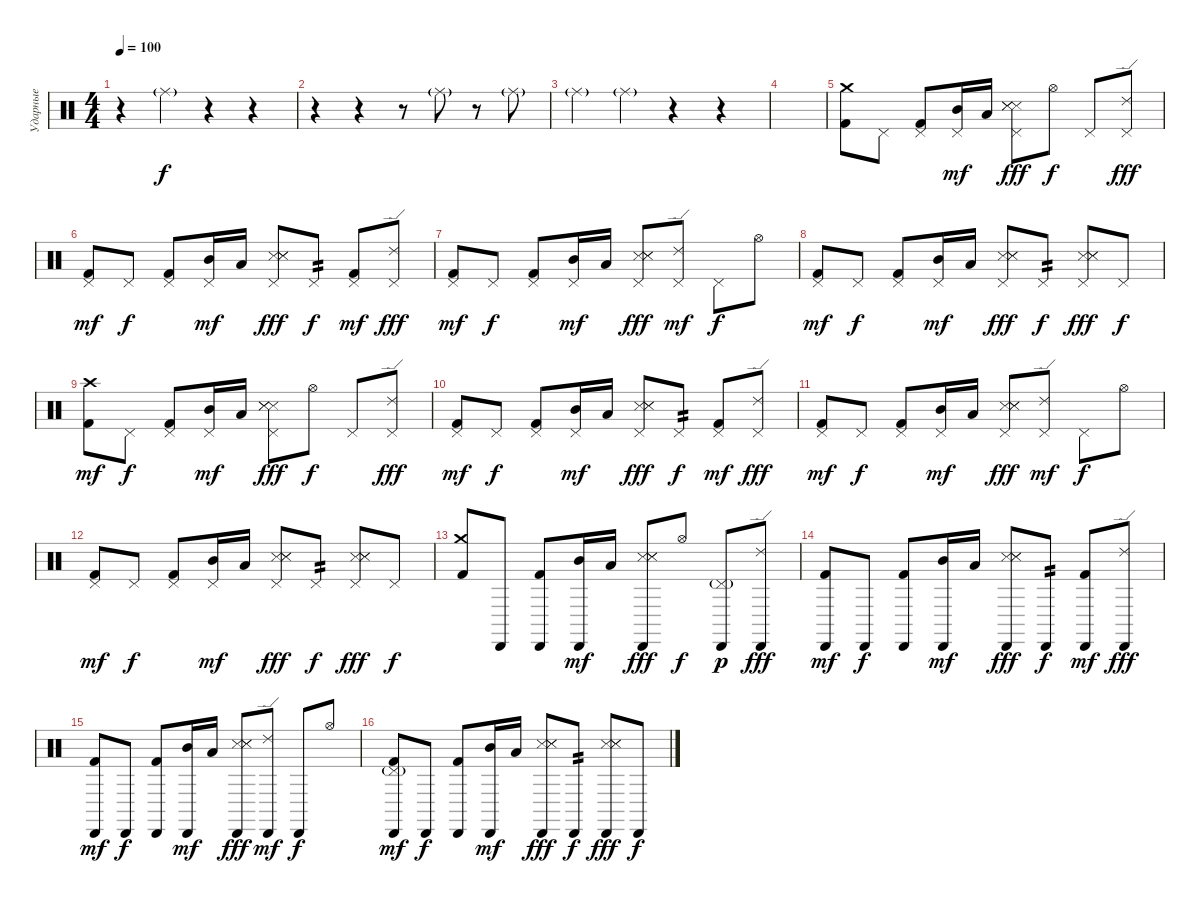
\track ("Ударные" "Ударные") {instrument percussion}
\staff {score}
\articulation defaults
\ts (4 4)
\tempo 100
\clef neutral
\ks c
r.4{dy fff} "Ride (middle)"{g}.4{dy f} r.4 r.4 |
r.4 r.4 r.8 "Ride (middle)"{g}.8 r.8 "Ride (middle)"{g}.8 |
"Ride (middle)"{g}.4 "Ride (middle)"{g}.4 r.4 r.4 |
|
("Crash medium (hit)" "Kick (hit) 2").8 "Pedal Hi-Hat (hit)".8 ("Pedal Hi-Hat (hit)" "Kick (hit) 2").8 ("Pedal Hi-Hat (hit)" "Mid Tom (hit)").16{dy mf} "Low Tom (hit)".16 ("Metronome (hit)" "Pedal Hi-Hat (hit)" "Metronome (hit)" "Metronome (hit)").8{dy fff} "Hi-Hat (open)".8{dy f} "Pedal Hi-Hat (hit)".8 ("Ride (edge) 2" "Pedal Hi-Hat (hit)").8{dy fff} |
("Pedal Hi-Hat (hit)" "Kick (hit) 2").8{dy mf} "Pedal Hi-Hat (hit)".8{dy f} ("Pedal Hi-Hat (hit)" "Kick (hit) 2").8 ("Pedal Hi-Hat (hit)" "Mid Tom (hit)").16{dy mf} "Low Tom (hit)".16 ("Metronome (hit)" "Pedal Hi-Hat (hit)" "Metronome (hit)" "Metronome (hit)").8{dy fff} "Pedal Hi-Hat (hit)".8{tp 2 dy f} ("Pedal Hi-Hat (hit)" "Kick (hit) 2").8{dy mf} ("Ride (edge) 2" "Pedal Hi-Hat (hit)").8{dy fff} |
("Pedal Hi-Hat (hit)" "Kick (hit) 2").8{dy mf} "Pedal Hi-Hat (hit)".8{dy f} ("Pedal Hi-Hat (hit)" "Kick (hit) 2").8 ("Pedal Hi-Hat (hit)" "Mid Tom (hit)").16{dy mf} "Low Tom (hit)".16 ("Metronome (hit)" "Pedal Hi-Hat (hit)" "Metronome (hit)" "Metronome (hit)").8{dy fff} ("Ride (edge) 2" "Pedal Hi-Hat (hit)").8{dy mf} "Pedal Hi-Hat (hit)".8{dy f} "Hi-Hat (open)".8 |
("Pedal Hi-Hat (hit)" "Kick (hit) 2").8{dy mf} "Pedal Hi-Hat (hit)".8{dy f} ("Pedal Hi-Hat (hit)" "Kick (hit) 2").8 ("Pedal Hi-Hat (hit)" "Mid Tom (hit)").16{dy mf} "Low Tom (hit)".16 ("Metronome (hit)" "Pedal Hi-Hat (hit)" "Metronome (hit)" "Metronome (hit)").8{dy fff} "Pedal Hi-Hat (hit)".8{tp 2 dy f} ("Metronome (hit)" "Pedal Hi-Hat (hit)" "Metronome (hit)" "Metronome (hit)").8{dy fff} "Pedal Hi-Hat (hit)".8{dy f} |
("Crash high (hit)" "Kick (hit) 2").8{dy mf} "Pedal Hi-Hat (hit)".8{dy f} ("Pedal Hi-Hat (hit)" "Kick (hit) 2").8 ("Pedal Hi-Hat (hit)" "Mid Tom (hit)").16{dy mf} "Low Tom (hit)".16 ("Metronome (hit)" "Pedal Hi-Hat (hit)" "Metronome (hit)" "Metronome (hit)").8{dy fff} "Hi-Hat (open)".8{dy f} "Pedal Hi-Hat (hit)".8 ("Ride (edge) 2" "Pedal Hi-Hat (hit)").8{dy fff} |
("Pedal Hi-Hat (hit)" "Kick (hit) 2").8{dy mf} "Pedal Hi-Hat (hit)".8{dy f} ("Pedal Hi-Hat (hit)" "Kick (hit) 2").8 ("Pedal Hi-Hat (hit)" "Mid Tom (hit)").16{dy mf} "Low Tom (hit)".16 ("Metronome (hit)" "Pedal Hi-Hat (hit)" "Metronome (hit)" "Metronome (hit)").8{dy fff} "Pedal Hi-Hat (hit)".8{tp 2 dy f} ("Pedal Hi-Hat (hit)" "Kick (hit) 2").8{dy mf} ("Ride (edge) 2" "Pedal Hi-Hat (hit)").8{dy fff} |
("Pedal Hi-Hat (hit)" "Kick (hit) 2").8{dy mf} "Pedal Hi-Hat (hit)".8{dy f} ("Pedal Hi-Hat (hit)" "Kick (hit) 2").8 ("Pedal Hi-Hat (hit)" "Mid Tom (hit)").16{dy mf} "Low Tom (hit)".16 ("Metronome (hit)" "Pedal Hi-Hat (hit)" "Metronome (hit)" "Metronome (hit)").8{dy fff} ("Ride (edge) 2" "Pedal Hi-Hat (hit)").8{dy mf} "Pedal Hi-Hat (hit)".8{dy f} "Hi-Hat (open)".8 |
("Pedal Hi-Hat (hit)" "Kick (hit) 2").8{dy mf} "Pedal Hi-Hat (hit)".8{dy f} ("Pedal Hi-Hat (hit)" "Kick (hit) 2").8 ("Pedal Hi-Hat (hit)" "Mid Tom (hit)").16{dy mf} "Low Tom (hit)".16 ("Metronome (hit)" "Pedal Hi-Hat (hit)" "Metronome (hit)" "Metronome (hit)").8{dy fff} "Pedal Hi-Hat (hit)".8{tp 2 dy f} ("Metronome (hit)" "Pedal Hi-Hat (hit)" "Metronome (hit)" "Metronome (hit)").8{dy fff} "Pedal Hi-Hat (hit)".8{dy f} |
("Crash medium (hit)" "Kick (hit) 2").8 "Cabasa (hit)".8 ("Cabasa (hit)" "Kick (hit) 2").8 ("Cabasa (hit)" "Mid Tom (hit)").16{dy mf} "Low Tom (hit)".16 ("Metronome (hit)" "Cabasa (hit)" "Metronome (hit)" "Metronome (hit)").8{dy fff} "Hi-Hat (open)".8{dy f} ("Pedal Hi-Hat (hit)"{g} "Cabasa (hit)").8{dy p} ("Ride (edge) 2" "Cabasa (hit)").8{dy fff} |
("Cabasa (hit)" "Kick (hit) 2").8{dy mf} "Cabasa (hit)".8{dy f} ("Cabasa (hit)" "Kick (hit) 2").8 ("Cabasa (hit)" "Mid Tom (hit)").16{dy mf} "Low Tom (hit)".16 ("Metronome (hit)" "Cabasa (hit)" "Metronome (hit)" "Metronome (hit)").8{dy fff} "Cabasa (hit)".8{tp 2 dy f} ("Cabasa (hit)" "Kick (hit) 2").8{dy mf} ("Ride (edge) 2" "Cabasa (hit)").8{dy fff} |
("Cabasa (hit)" "Kick (hit) 2").8{dy mf} "Cabasa (hit)".8{dy f} ("Cabasa (hit)" "Kick (hit) 2").8 ("Cabasa (hit)" "Mid Tom (hit)").16{dy mf} "Low Tom (hit)".16 ("Metronome (hit)" "Cabasa (hit)" "Metronome (hit)" "Metronome (hit)").8{dy fff} ("Ride (edge) 2" "Cabasa (hit)").8{dy mf} "Cabasa (hit)".8{dy f} "Hi-Hat (open)".8 |
("Pedal Hi-Hat (hit)"{g} "Cabasa (hit)" "Kick (hit) 2").8{dy mf} "Cabasa (hit)".8{dy f} ("Cabasa (hit)" "Kick (hit) 2").8 ("Cabasa (hit)" "Mid Tom (hit)").16{dy mf} "Low Tom (hit)".16 ("Metronome (hit)" "Cabasa (hit)" "Metronome (hit)" "Metronome (hit)").8{dy fff} "Cabasa (hit)".8{tp 2 dy f} ("Metronome (hit)" "Cabasa (hit)" "Metronome (hit)" "Metronome (hit)").8{dy fff} "Cabasa (hit)".8{dy f}
